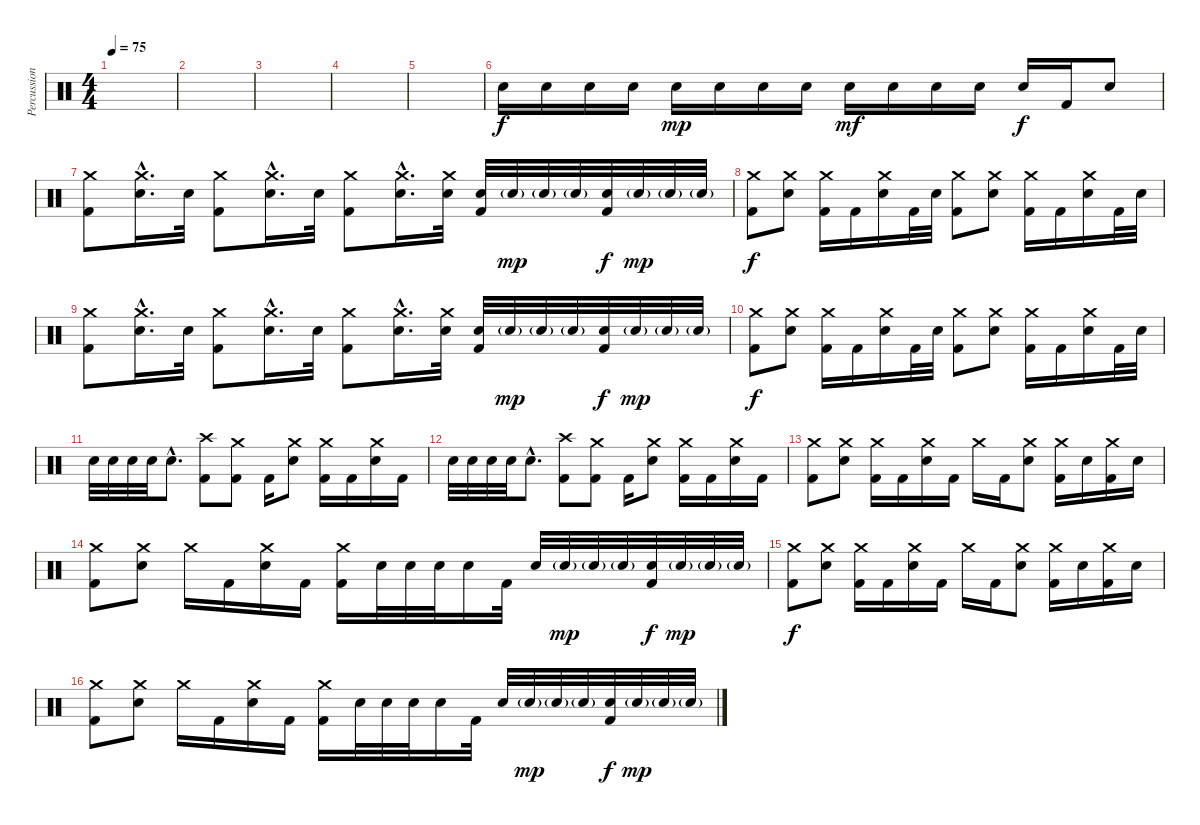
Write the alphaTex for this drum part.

\track ("Percussion" "Percussion") {instrument percussion}
\staff {score}
\articulation defaults
\ts (4 4)
\tempo 75
\clef neutral
\ks c
|
|
|
|
|
"Electric Snare (hit)".16 "Electric Snare (hit)".16 "Electric Snare (hit)".16 "Electric Snare (hit)".16 "Electric Snare (hit)".16{dy mp} "Electric Snare (hit)".16 "Electric Snare (hit)".16 "Electric Snare (hit)".16 "Electric Snare (hit)".16{dy mf} "Electric Snare (hit)".16 "Electric Snare (hit)".16 "Electric Snare (hit)".16 "Electric Snare (hit)".16{dy f} "Kick (hit) 2".16 "Electric Snare (hit)".8 |
("Crash medium (hit)" "Kick (hit) 2").8 ("Crash medium (hit)"{hac} "Electric Snare (hit)"{hac}).16{d} "Electric Snare (hit)".32 ("Crash medium (hit)" "Kick (hit) 2").8 ("Crash medium (hit)"{hac} "Electric Snare (hit)"{hac}).16{d} "Electric Snare (hit)".32 ("Crash medium (hit)" "Kick (hit) 2").8 ("Crash medium (hit)"{hac} "Electric Snare (hit)"{hac}).16{d} ("Crash medium (hit)" "Electric Snare (hit)").32 ("Electric Snare (hit)" "Kick (hit) 2").32 "Electric Snare (hit)"{g}.32{dy mp} "Electric Snare (hit)"{g}.32 "Electric Snare (hit)"{g}.32 ("Electric Snare (hit)" "Kick (hit) 2").32{dy f} "Electric Snare (hit)"{g}.32{dy mp} "Electric Snare (hit)"{g}.32 "Electric Snare (hit)"{g}.32 |
("Crash medium (hit)" "Kick (hit) 2").8{dy f} ("Crash medium (hit)" "Electric Snare (hit)").8 ("Crash medium (hit)" "Kick (hit) 2").16 "Kick (hit) 2".16 ("Crash medium (hit)" "Electric Snare (hit)").16 "Kick (hit) 2".32 "Electric Snare (hit)".32 ("Crash medium (hit)" "Kick (hit) 2").8 ("Crash medium (hit)" "Electric Snare (hit)").8 ("Crash medium (hit)" "Kick (hit) 2").16 "Kick (hit) 2".16 ("Crash medium (hit)" "Electric Snare (hit)").16 "Kick (hit) 2".32 "Electric Snare (hit)".32 |
("Crash medium (hit)" "Kick (hit) 2").8 ("Crash medium (hit)"{hac} "Electric Snare (hit)"{hac}).16{d} "Electric Snare (hit)".32 ("Crash medium (hit)" "Kick (hit) 2").8 ("Crash medium (hit)"{hac} "Electric Snare (hit)"{hac}).16{d} "Electric Snare (hit)".32 ("Crash medium (hit)" "Kick (hit) 2").8 ("Crash medium (hit)"{hac} "Electric Snare (hit)"{hac}).16{d} ("Crash medium (hit)" "Electric Snare (hit)").32 ("Electric Snare (hit)" "Kick (hit) 2").32 "Electric Snare (hit)"{g}.32{dy mp} "Electric Snare (hit)"{g}.32 "Electric Snare (hit)"{g}.32 ("Electric Snare (hit)" "Kick (hit) 2").32{dy f} "Electric Snare (hit)"{g}.32{dy mp} "Electric Snare (hit)"{g}.32 "Electric Snare (hit)"{g}.32 |
("Crash medium (hit)" "Kick (hit) 2").8{dy f} ("Crash medium (hit)" "Electric Snare (hit)").8 ("Crash medium (hit)" "Kick (hit) 2").16 "Kick (hit) 2".16 ("Crash medium (hit)" "Electric Snare (hit)").16 "Kick (hit) 2".32 "Electric Snare (hit)".32 ("Crash medium (hit)" "Kick (hit) 2").8 ("Crash medium (hit)" "Electric Snare (hit)").8 ("Crash medium (hit)" "Kick (hit) 2").16 "Kick (hit) 2".16 ("Crash medium (hit)" "Electric Snare (hit)").16 "Kick (hit) 2".32 "Electric Snare (hit)".32 |
"Electric Snare (hit)".32 "Electric Snare (hit)".32 "Electric Snare (hit)".32 "Electric Snare (hit)".32 "Electric Snare (hit)"{hac}.8{d} ("Crash high (hit)" "Kick (hit) 2").8 ("Crash medium (hit)" "Kick (hit) 2").8 "Kick (hit) 2".16 ("Crash medium (hit)" "Electric Snare (hit)").8 ("Crash medium (hit)" "Kick (hit) 2").16 "Kick (hit) 2".16 ("Crash medium (hit)" "Electric Snare (hit)").16 "Kick (hit) 2".16 |
"Electric Snare (hit)".32 "Electric Snare (hit)".32 "Electric Snare (hit)".32 "Electric Snare (hit)".32 "Electric Snare (hit)"{hac}.8{d} ("Crash high (hit)" "Kick (hit) 2").8 ("Crash medium (hit)" "Kick (hit) 2").8 "Kick (hit) 2".16 ("Crash medium (hit)" "Electric Snare (hit)").8 ("Crash medium (hit)" "Kick (hit) 2").16 "Kick (hit) 2".16 ("Crash medium (hit)" "Electric Snare (hit)").16 "Kick (hit) 2".16 |
("Crash medium (hit)" "Kick (hit) 2").8 ("Crash medium (hit)" "Electric Snare (hit)").8 ("Crash medium (hit)" "Kick (hit) 2").16 "Kick (hit) 2".16 ("Crash medium (hit)" "Electric Snare (hit)").16 "Kick (hit) 2".16 "Crash medium (hit)".16 "Kick (hit) 2".16 ("Crash medium (hit)" "Electric Snare (hit)").8 ("Crash medium (hit)" "Kick (hit) 2").16 "Electric Snare (hit)".16 ("Crash medium (hit)" "Kick (hit) 2").16 "Electric Snare (hit)".16 |
("Crash medium (hit)" "Kick (hit) 2").8 ("Crash medium (hit)" "Electric Snare (hit)").8 "Crash medium (hit)".16 "Kick (hit) 2".16 ("Crash medium (hit)" "Electric Snare (hit)").16 "Kick (hit) 2".16 ("Crash medium (hit)" "Kick (hit) 2").16 "Electric Snare (hit)".32 "Electric Snare (hit)".32 "Electric Snare (hit)".32 "Electric Snare (hit)".16 "Kick (hit) 2".32 "Electric Snare (hit)".32 "Electric Snare (hit)"{g}.32{dy mp} "Electric Snare (hit)"{g}.32 "Electric Snare (hit)"{g}.32 ("Electric Snare (hit)" "Kick (hit) 2").32{dy f} "Electric Snare (hit)"{g}.32{dy mp} "Electric Snare (hit)"{g}.32 "Electric Snare (hit)"{g}.32 |
("Crash medium (hit)" "Kick (hit) 2").8{dy f} ("Crash medium (hit)" "Electric Snare (hit)").8 ("Crash medium (hit)" "Kick (hit) 2").16 "Kick (hit) 2".16 ("Crash medium (hit)" "Electric Snare (hit)").16 "Kick (hit) 2".16 "Crash medium (hit)".16 "Kick (hit) 2".16 ("Crash medium (hit)" "Electric Snare (hit)").8 ("Crash medium (hit)" "Kick (hit) 2").16 "Electric Snare (hit)".16 ("Crash medium (hit)" "Kick (hit) 2").16 "Electric Snare (hit)".16 |
("Crash medium (hit)" "Kick (hit) 2").8 ("Crash medium (hit)" "Electric Snare (hit)").8 "Crash medium (hit)".16 "Kick (hit) 2".16 ("Crash medium (hit)" "Electric Snare (hit)").16 "Kick (hit) 2".16 ("Crash medium (hit)" "Kick (hit) 2").16 "Electric Snare (hit)".32 "Electric Snare (hit)".32 "Electric Snare (hit)".32 "Electric Snare (hit)".16 "Kick (hit) 2".32 "Electric Snare (hit)".32 "Electric Snare (hit)"{g}.32{dy mp} "Electric Snare (hit)"{g}.32 "Electric Snare (hit)"{g}.32 ("Electric Snare (hit)" "Kick (hit) 2").32{dy f} "Electric Snare (hit)"{g}.32{dy mp} "Electric Snare (hit)"{g}.32 "Electric Snare (hit)"{g}.32
